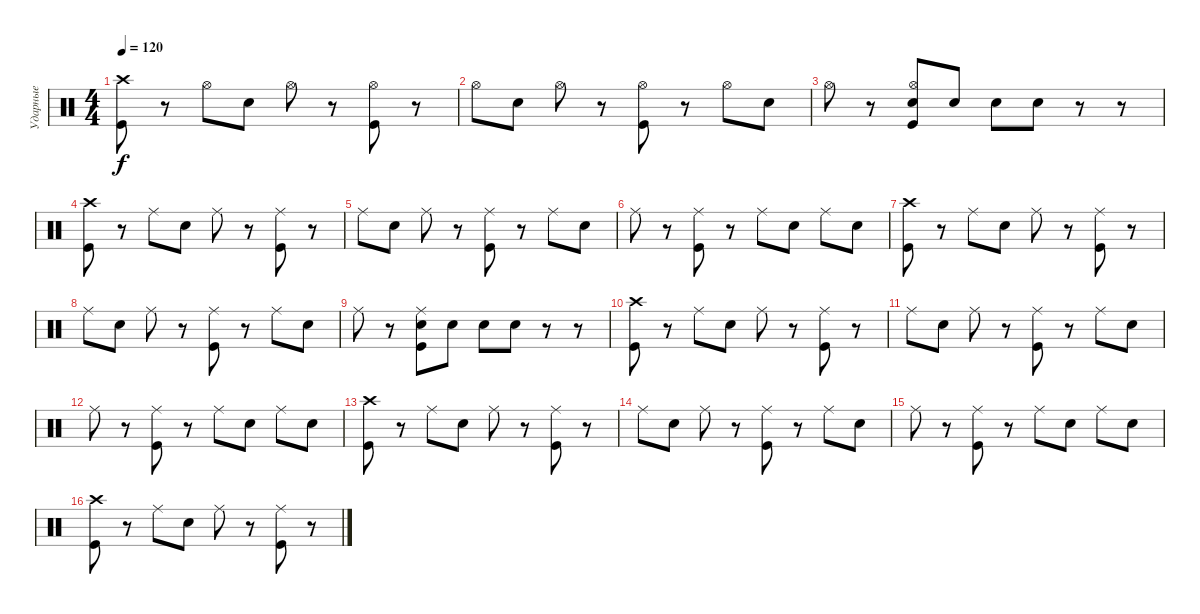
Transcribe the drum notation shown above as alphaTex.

\track ("Ударные" "Ударные") {instrument percussion}
\staff {score}
\articulation defaults
\ts (4 4)
\tempo 120
\clef neutral
\ks c
("Crash high (hit)" "Kick (hit)").8{dy f} r.8 "Hi-Hat (open)".8 "Snare (hit) 2".8 "Hi-Hat (open)".8 r.8 ("Hi-Hat (open)" "Kick (hit)").8 r.8 |
"Hi-Hat (open)".8 "Snare (hit) 2".8 "Hi-Hat (open)".8 r.8 ("Hi-Hat (open)" "Kick (hit)").8 r.8 "Hi-Hat (open)".8 "Snare (hit) 2".8 |
"Hi-Hat (open)".8 r.8 ("Hi-Hat (open)" "Snare (hit) 2" "Kick (hit)").8 "Snare (hit) 2".8 "Snare (hit) 2".8 "Snare (hit) 2".8 r.8 r.8 |
("Crash high (hit)" "Kick (hit)").8 r.8 "Ride (middle)".8 "Snare (hit) 2".8 "Ride (middle)".8 r.8 ("Ride (middle)" "Kick (hit)").8 r.8 |
"Ride (middle)".8 "Snare (hit) 2".8 "Ride (middle)".8 r.8 ("Ride (middle)" "Kick (hit)").8 r.8 "Ride (middle)".8 "Snare (hit) 2".8 |
"Ride (middle)".8 r.8 ("Ride (middle)" "Kick (hit)").8 r.8 "Ride (middle)".8 "Snare (hit) 2".8 "Ride (middle)".8 "Snare (hit) 2".8 |
("Crash high (hit)" "Kick (hit)").8 r.8 "Ride (middle)".8 "Snare (hit) 2".8 "Ride (middle)".8 r.8 ("Ride (middle)" "Kick (hit)").8 r.8 |
"Ride (middle)".8 "Snare (hit) 2".8 "Ride (middle)".8 r.8 ("Ride (middle)" "Kick (hit)").8 r.8 "Ride (middle)".8 "Snare (hit) 2".8 |
"Ride (middle)".8 r.8 ("Ride (middle)" "Snare (hit) 2" "Kick (hit)").8 "Snare (hit) 2".8 "Snare (hit) 2".8 "Snare (hit) 2".8 r.8 r.8 |
("Crash high (hit)" "Kick (hit)").8 r.8 "Ride (middle)".8 "Snare (hit) 2".8 "Ride (middle)".8 r.8 ("Ride (middle)" "Kick (hit)").8 r.8 |
"Ride (middle)".8 "Snare (hit) 2".8 "Ride (middle)".8 r.8 ("Ride (middle)" "Kick (hit)").8 r.8 "Ride (middle)".8 "Snare (hit) 2".8 |
"Ride (middle)".8 r.8 ("Ride (middle)" "Kick (hit)").8 r.8 "Ride (middle)".8 "Snare (hit) 2".8 "Ride (middle)".8 "Snare (hit) 2".8 |
("Crash high (hit)" "Kick (hit)").8 r.8 "Ride (middle)".8 "Snare (hit) 2".8 "Ride (middle)".8 r.8 ("Ride (middle)" "Kick (hit)").8 r.8 |
"Ride (middle)".8 "Snare (hit) 2".8 "Ride (middle)".8 r.8 ("Ride (middle)" "Kick (hit)").8 r.8 "Ride (middle)".8 "Snare (hit) 2".8 |
"Ride (middle)".8 r.8 ("Ride (middle)" "Kick (hit)").8 r.8 "Ride (middle)".8 "Snare (hit) 2".8 "Ride (middle)".8 "Snare (hit) 2".8 |
("Crash high (hit)" "Kick (hit)").8 r.8 "Ride (middle)".8 "Snare (hit) 2".8 "Ride (middle)".8 r.8 ("Ride (middle)" "Kick (hit)").8 r.8
